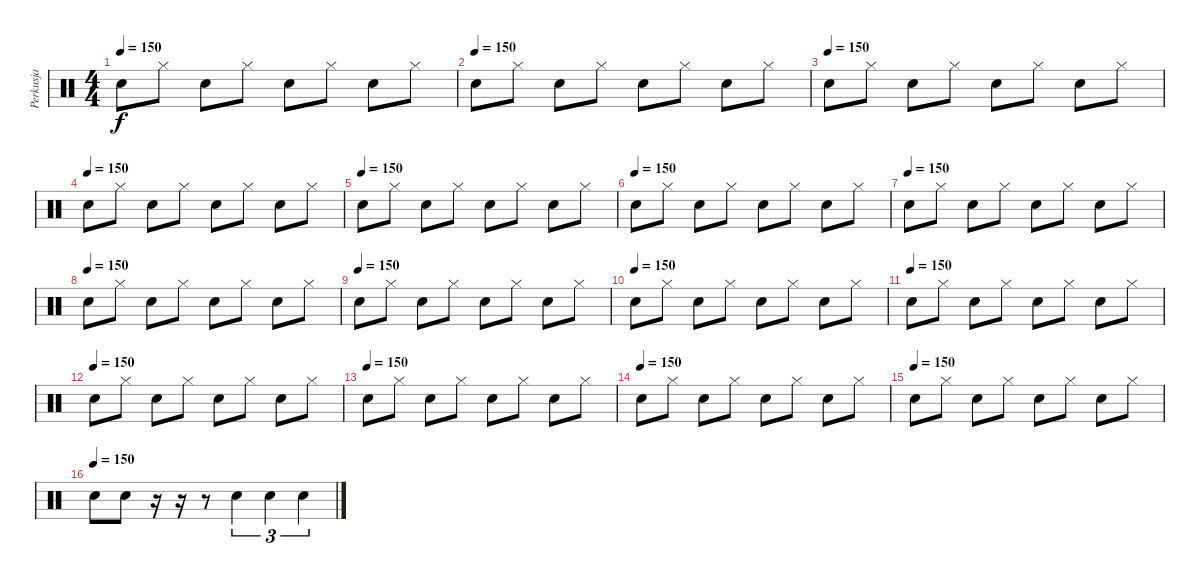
\track ("Perkusja" "Perkusja") {instrument percussion}
\staff {score}
\articulation defaults
\ts (4 4)
\tempo 150
\clef neutral
\ks c "Snare (hit) 2".8{dy f} "Hi-Hat (closed)".8 "Snare (hit) 2".8 "Hi-Hat (closed)".8 "Snare (hit) 2".8 "Hi-Hat (closed)".8 "Snare (hit) 2".8 "Hi-Hat (closed)".8
|
\tempo (150)
"Snare (hit) 2".8 "Hi-Hat (closed)".8 "Snare (hit) 2".8 "Hi-Hat (closed)".8 "Snare (hit) 2".8 "Hi-Hat (closed)".8 "Snare (hit) 2".8 "Hi-Hat (closed)".8 |
\tempo (150)
"Snare (hit) 2".8 "Hi-Hat (closed)".8 "Snare (hit) 2".8 "Hi-Hat (closed)".8 "Snare (hit) 2".8 "Hi-Hat (closed)".8 "Snare (hit) 2".8 "Hi-Hat (closed)".8 |
\tempo (150)
"Snare (hit) 2".8 "Hi-Hat (closed)".8 "Snare (hit) 2".8 "Hi-Hat (closed)".8 "Snare (hit) 2".8 "Hi-Hat (closed)".8 "Snare (hit) 2".8 "Hi-Hat (closed)".8 |
\tempo (150)
"Snare (hit) 2".8 "Hi-Hat (closed)".8 "Snare (hit) 2".8 "Hi-Hat (closed)".8 "Snare (hit) 2".8 "Hi-Hat (closed)".8 "Snare (hit) 2".8 "Hi-Hat (closed)".8 |
\tempo (150)
"Snare (hit) 2".8 "Hi-Hat (closed)".8 "Snare (hit) 2".8 "Hi-Hat (closed)".8 "Snare (hit) 2".8 "Hi-Hat (closed)".8 "Snare (hit) 2".8 "Hi-Hat (closed)".8 |
\tempo (150)
"Snare (hit) 2".8 "Hi-Hat (closed)".8 "Snare (hit) 2".8 "Hi-Hat (closed)".8 "Snare (hit) 2".8 "Hi-Hat (closed)".8 "Snare (hit) 2".8 "Hi-Hat (closed)".8 |
\tempo (150)
"Snare (hit) 2".8 "Hi-Hat (closed)".8 "Snare (hit) 2".8 "Hi-Hat (closed)".8 "Snare (hit) 2".8 "Hi-Hat (closed)".8 "Snare (hit) 2".8 "Hi-Hat (closed)".8 |
\tempo (150)
"Snare (hit) 2".8 "Hi-Hat (closed)".8 "Snare (hit) 2".8 "Hi-Hat (closed)".8 "Snare (hit) 2".8 "Hi-Hat (closed)".8 "Snare (hit) 2".8 "Hi-Hat (closed)".8 |
\tempo (150)
"Snare (hit) 2".8 "Hi-Hat (closed)".8 "Snare (hit) 2".8 "Hi-Hat (closed)".8 "Snare (hit) 2".8 "Hi-Hat (closed)".8 "Snare (hit) 2".8 "Hi-Hat (closed)".8 |
\tempo (150)
"Snare (hit) 2".8 "Hi-Hat (closed)".8 "Snare (hit) 2".8 "Hi-Hat (closed)".8 "Snare (hit) 2".8 "Hi-Hat (closed)".8 "Snare (hit) 2".8 "Hi-Hat (closed)".8 |
\tempo (150)
"Snare (hit) 2".8 "Hi-Hat (closed)".8 "Snare (hit) 2".8 "Hi-Hat (closed)".8 "Snare (hit) 2".8 "Hi-Hat (closed)".8 "Snare (hit) 2".8 "Hi-Hat (closed)".8 |
\tempo (150)
"Snare (hit) 2".8 "Hi-Hat (closed)".8 "Snare (hit) 2".8 "Hi-Hat (closed)".8 "Snare (hit) 2".8 "Hi-Hat (closed)".8 "Snare (hit) 2".8 "Hi-Hat (closed)".8 |
\tempo (150)
"Snare (hit) 2".8 "Hi-Hat (closed)".8 "Snare (hit) 2".8 "Hi-Hat (closed)".8 "Snare (hit) 2".8 "Hi-Hat (closed)".8 "Snare (hit) 2".8 "Hi-Hat (closed)".8 |
\tempo (150)
"Snare (hit) 2".8 "Hi-Hat (closed)".8 "Snare (hit) 2".8 "Hi-Hat (closed)".8 "Snare (hit) 2".8 "Hi-Hat (closed)".8 "Snare (hit) 2".8 "Hi-Hat (closed)".8 |
\tempo (150)
"Snare (hit) 2".8 "Snare (hit) 2".8 r.16 r.16 r.8 "Electric Snare (hit)".4{tu (3 2)} "Electric Snare (hit)".4{tu (3 2)} "Electric Snare (hit)".4{tu (3 2)}
